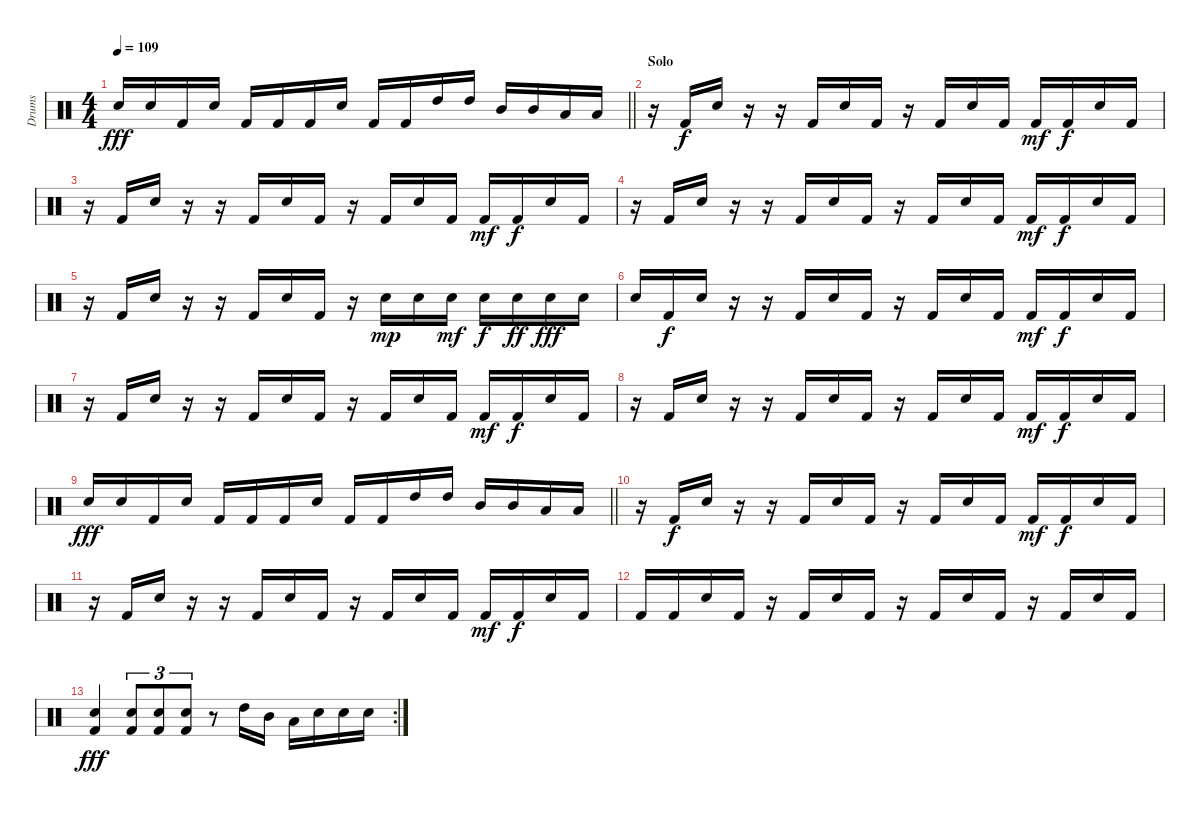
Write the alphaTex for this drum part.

\track ("Drums" "Drums") {instrument percussion}
\staff {score}
\articulation defaults
\ts (4 4)
\tempo 109
\clef neutral
\barLineRight lightlight
\ks c "Snare (hit) 2".16{dy fff} "Snare (hit) 2".16 "Kick (hit) 2".16 "Snare (hit) 2".16 "Kick (hit) 2".16 "Kick (hit) 2".16 "Kick (hit) 2".16 "Snare (hit) 2".16 "Kick (hit) 2".16 "Kick (hit) 2".16 "High Tom (hit)".16 "High Tom (hit)".16 "Mid Tom (hit)".16 "Mid Tom (hit)".16 "Low Tom (hit)".16 "Low Tom (hit)".16
|
\section ("" "Solo")
r.16 "Kick (hit) 2".16{dy f} "Snare (hit) 2".16 r.16 r.16 "Kick (hit) 2".16 "Snare (hit) 2".16 "Kick (hit) 2".16 r.16 "Kick (hit) 2".16 "Snare (hit) 2".16 "Kick (hit) 2".16 "Kick (hit) 2".16{dy mf} "Kick (hit) 2".16{dy f} "Snare (hit) 2".16 "Kick (hit) 2".16 |
r.16 "Kick (hit) 2".16 "Snare (hit) 2".16 r.16 r.16 "Kick (hit) 2".16 "Snare (hit) 2".16 "Kick (hit) 2".16 r.16 "Kick (hit) 2".16 "Snare (hit) 2".16 "Kick (hit) 2".16 "Kick (hit) 2".16{dy mf} "Kick (hit) 2".16{dy f} "Snare (hit) 2".16 "Kick (hit) 2".16 |
r.16 "Kick (hit) 2".16 "Snare (hit) 2".16 r.16 r.16 "Kick (hit) 2".16 "Snare (hit) 2".16 "Kick (hit) 2".16 r.16 "Kick (hit) 2".16 "Snare (hit) 2".16 "Kick (hit) 2".16 "Kick (hit) 2".16{dy mf} "Kick (hit) 2".16{dy f} "Snare (hit) 2".16 "Kick (hit) 2".16 |
r.16 "Kick (hit) 2".16 "Snare (hit) 2".16 r.16 r.16 "Kick (hit) 2".16 "Snare (hit) 2".16 "Kick (hit) 2".16 r.16 "Snare (hit) 2".16{dy mp} "Snare (hit) 2".16 "Snare (hit) 2".16{dy mf} "Snare (hit) 2".16{dy f} "Snare (hit) 2".16{dy ff} "Snare (hit) 2".16{dy fff} "Snare (hit) 2".16 |
"Snare (hit) 2".16 "Kick (hit) 2".16{dy f} "Snare (hit) 2".16 r.16 r.16 "Kick (hit) 2".16 "Snare (hit) 2".16 "Kick (hit) 2".16 r.16 "Kick (hit) 2".16 "Snare (hit) 2".16 "Kick (hit) 2".16 "Kick (hit) 2".16{dy mf} "Kick (hit) 2".16{dy f} "Snare (hit) 2".16 "Kick (hit) 2".16 |
r.16 "Kick (hit) 2".16 "Snare (hit) 2".16 r.16 r.16 "Kick (hit) 2".16 "Snare (hit) 2".16 "Kick (hit) 2".16 r.16 "Kick (hit) 2".16 "Snare (hit) 2".16 "Kick (hit) 2".16 "Kick (hit) 2".16{dy mf} "Kick (hit) 2".16{dy f} "Snare (hit) 2".16 "Kick (hit) 2".16 |
r.16 "Kick (hit) 2".16 "Snare (hit) 2".16 r.16 r.16 "Kick (hit) 2".16 "Snare (hit) 2".16 "Kick (hit) 2".16 r.16 "Kick (hit) 2".16 "Snare (hit) 2".16 "Kick (hit) 2".16 "Kick (hit) 2".16{dy mf} "Kick (hit) 2".16{dy f} "Snare (hit) 2".16 "Kick (hit) 2".16 |
\barLineRight lightlight "Snare (hit) 2".16{dy fff} "Snare (hit) 2".16 "Kick (hit) 2".16 "Snare (hit) 2".16 "Kick (hit) 2".16 "Kick (hit) 2".16 "Kick (hit) 2".16 "Snare (hit) 2".16 "Kick (hit) 2".16 "Kick (hit) 2".16 "High Tom (hit)".16 "High Tom (hit)".16 "Mid Tom (hit)".16 "Mid Tom (hit)".16 "Low Tom (hit)".16 "Low Tom (hit)".16
|
r.16 "Kick (hit) 2".16{dy f} "Snare (hit) 2".16 r.16 r.16 "Kick (hit) 2".16 "Snare (hit) 2".16 "Kick (hit) 2".16 r.16 "Kick (hit) 2".16 "Snare (hit) 2".16 "Kick (hit) 2".16 "Kick (hit) 2".16{dy mf} "Kick (hit) 2".16{dy f} "Snare (hit) 2".16 "Kick (hit) 2".16 |
r.16 "Kick (hit) 2".16 "Snare (hit) 2".16 r.16 r.16 "Kick (hit) 2".16 "Snare (hit) 2".16 "Kick (hit) 2".16 r.16 "Kick (hit) 2".16 "Snare (hit) 2".16 "Kick (hit) 2".16 "Kick (hit) 2".16{dy mf} "Kick (hit) 2".16{dy f} "Snare (hit) 2".16 "Kick (hit) 2".16 |
"Kick (hit) 2".16 "Kick (hit) 2".16 "Snare (hit) 2".16 "Kick (hit) 2".16 r.16 "Kick (hit) 2".16 "Snare (hit) 2".16 "Kick (hit) 2".16 r.16 "Kick (hit) 2".16 "Snare (hit) 2".16 "Kick (hit) 2".16 r.16 "Kick (hit) 2".16 "Snare (hit) 2".16 "Kick (hit) 2".16 |
\rc 2
("Snare (hit) 2" "Kick (hit) 2").4{dy fff} ("Snare (hit) 2" "Kick (hit) 2").8{tu (3 2)} ("Snare (hit) 2" "Kick (hit) 2").8{tu (3 2)} ("Snare (hit) 2" "Kick (hit) 2").8{tu (3 2)} r.8 "High Tom (hit)".16 "Mid Tom (hit)".16 "Low Tom (hit)".16 "Snare (hit) 2".16 "Snare (hit) 2".16 "Snare (hit) 2".16
